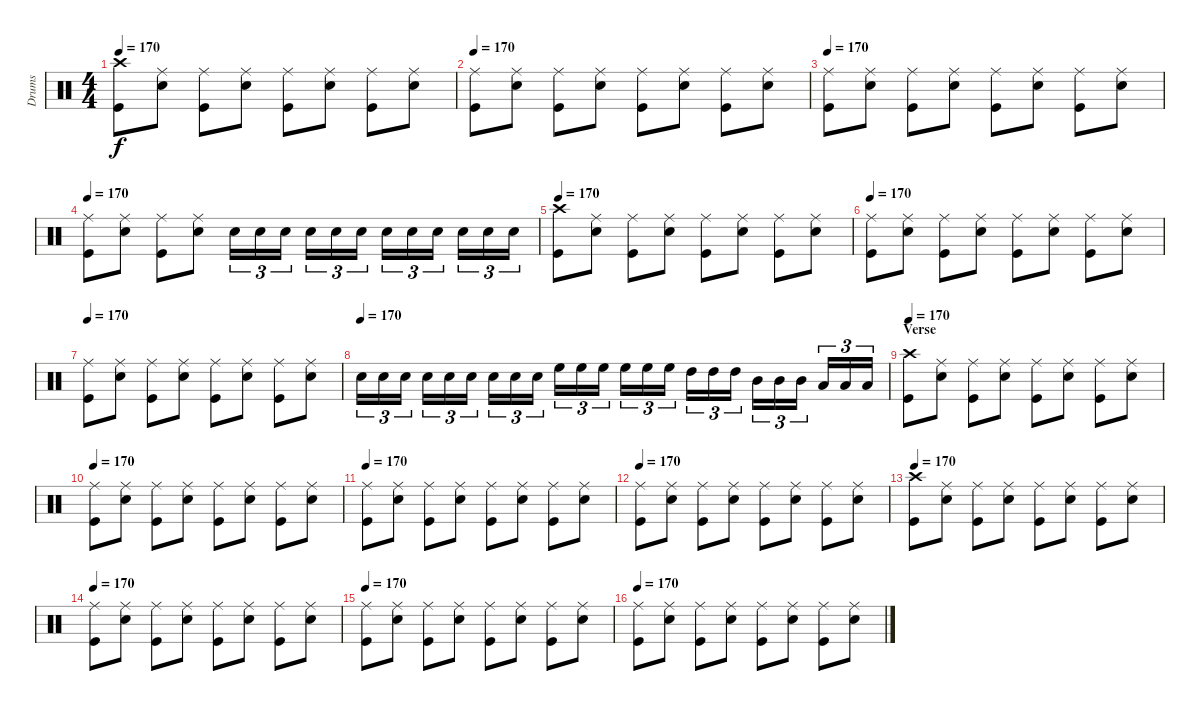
\track ("Drums" "Drums") {instrument percussion}
\staff {score}
\articulation defaults
\ts (4 4)
\tempo 170
\clef neutral
\ks c
("Crash high (hit)" "Kick (hit)").8{dy f} ("Ride (middle)" "Snare (hit) 2").8 ("Ride (middle)" "Kick (hit)").8 ("Ride (middle)" "Snare (hit) 2").8 ("Ride (middle)" "Kick (hit)").8 ("Ride (middle)" "Snare (hit) 2").8 ("Ride (middle)" "Kick (hit)").8 ("Ride (middle)" "Snare (hit) 2").8 |
\tempo 170
("Ride (middle)" "Kick (hit)").8 ("Ride (middle)" "Snare (hit) 2").8 ("Ride (middle)" "Kick (hit)").8 ("Ride (middle)" "Snare (hit) 2").8 ("Ride (middle)" "Kick (hit)").8 ("Ride (middle)" "Snare (hit) 2").8 ("Ride (middle)" "Kick (hit)").8 ("Ride (middle)" "Snare (hit) 2").8 |
\tempo 170
("Ride (middle)" "Kick (hit)").8 ("Ride (middle)" "Snare (hit) 2").8 ("Ride (middle)" "Kick (hit)").8 ("Ride (middle)" "Snare (hit) 2").8 ("Ride (middle)" "Kick (hit)").8 ("Ride (middle)" "Snare (hit) 2").8 ("Ride (middle)" "Kick (hit)").8 ("Ride (middle)" "Snare (hit) 2").8 |
\tempo 170
("Ride (middle)" "Kick (hit)").8 ("Ride (middle)" "Snare (hit) 2").8 ("Ride (middle)" "Kick (hit)").8 ("Ride (middle)" "Snare (hit) 2").8 "Snare (hit) 2".16{tu (3 2)} "Snare (hit) 2".16{tu (3 2)} "Snare (hit) 2".16{tu (3 2)} "Snare (hit) 2".16{tu (3 2)} "Snare (hit) 2".16{tu (3 2)} "Snare (hit) 2".16{tu (3 2)} "Snare (hit) 2".16{tu (3 2)} "Snare (hit) 2".16{tu (3 2)} "Snare (hit) 2".16{tu (3 2)} "Snare (hit) 2".16{tu (3 2)} "Snare (hit) 2".16{tu (3 2)} "Snare (hit) 2".16{tu (3 2)} |
\tempo 170
("Crash high (hit)" "Kick (hit)").8 ("Ride (middle)" "Snare (hit) 2").8 ("Ride (middle)" "Kick (hit)").8 ("Ride (middle)" "Snare (hit) 2").8 ("Ride (middle)" "Kick (hit)").8 ("Ride (middle)" "Snare (hit) 2").8 ("Ride (middle)" "Kick (hit)").8 ("Ride (middle)" "Snare (hit) 2").8 |
\tempo 170
("Ride (middle)" "Kick (hit)").8 ("Ride (middle)" "Snare (hit) 2").8 ("Ride (middle)" "Kick (hit)").8 ("Ride (middle)" "Snare (hit) 2").8 ("Ride (middle)" "Kick (hit)").8 ("Ride (middle)" "Snare (hit) 2").8 ("Ride (middle)" "Kick (hit)").8 ("Ride (middle)" "Snare (hit) 2").8 |
\tempo 170
("Ride (middle)" "Kick (hit)").8 ("Ride (middle)" "Snare (hit) 2").8 ("Ride (middle)" "Kick (hit)").8 ("Ride (middle)" "Snare (hit) 2").8 ("Ride (middle)" "Kick (hit)").8 ("Ride (middle)" "Snare (hit) 2").8 ("Ride (middle)" "Kick (hit)").8 ("Ride (middle)" "Snare (hit) 2").8 |
\tempo (170)
"Snare (hit) 2".16{tu (3 2)} "Snare (hit) 2".16{tu (3 2)} "Snare (hit) 2".16{tu (3 2)} "Snare (hit) 2".16{tu (3 2)} "Snare (hit) 2".16{tu (3 2)} "Snare (hit) 2".16{tu (3 2)} "Snare (hit) 2".16{tu (3 2)} "Snare (hit) 2".16{tu (3 2)} "Snare (hit) 2".16{tu (3 2)} "High Floor Tom (hit)".16{tu (3 2)} "High Floor Tom (hit)".16{tu (3 2)} "High Floor Tom (hit)".16{tu (3 2)} "High Floor Tom (hit)".16{tu (3 2)} "High Floor Tom (hit)".16{tu (3 2)} "High Floor Tom (hit)".16{tu (3 2)} "High Tom (hit)".16{tu (3 2)} "High Tom (hit)".16{tu (3 2)} "High Tom (hit)".16{tu (3 2)} "Mid Tom (hit)".16{tu (3 2)} "Mid Tom (hit)".16{tu (3 2)} "Mid Tom (hit)".16{tu (3 2)} "Low Tom (hit)".16{tu (3 2)} "Low Tom (hit)".16{tu (3 2)} "Low Tom (hit)".16{tu (3 2)} |
\section ("" "Verse")
\tempo 170
("Crash high (hit)" "Kick (hit)").8 ("Ride (middle)" "Snare (hit) 2").8 ("Ride (middle)" "Kick (hit)").8 ("Ride (middle)" "Snare (hit) 2").8 ("Ride (middle)" "Kick (hit)").8 ("Ride (middle)" "Snare (hit) 2").8 ("Ride (middle)" "Kick (hit)").8 ("Ride (middle)" "Snare (hit) 2").8 |
\tempo 170
("Ride (middle)" "Kick (hit)").8 ("Ride (middle)" "Snare (hit) 2").8 ("Ride (middle)" "Kick (hit)").8 ("Ride (middle)" "Snare (hit) 2").8 ("Ride (middle)" "Kick (hit)").8 ("Ride (middle)" "Snare (hit) 2").8 ("Ride (middle)" "Kick (hit)").8 ("Ride (middle)" "Snare (hit) 2").8 |
\tempo 170
("Ride (middle)" "Kick (hit)").8 ("Ride (middle)" "Snare (hit) 2").8 ("Ride (middle)" "Kick (hit)").8 ("Ride (middle)" "Snare (hit) 2").8 ("Ride (middle)" "Kick (hit)").8 ("Ride (middle)" "Snare (hit) 2").8 ("Ride (middle)" "Kick (hit)").8 ("Ride (middle)" "Snare (hit) 2").8 |
\tempo 170
("Ride (middle)" "Kick (hit)").8 ("Ride (middle)" "Snare (hit) 2").8 ("Ride (middle)" "Kick (hit)").8 ("Ride (middle)" "Snare (hit) 2").8 ("Ride (middle)" "Kick (hit)").8 ("Ride (middle)" "Snare (hit) 2").8 ("Ride (middle)" "Kick (hit)").8 ("Ride (middle)" "Snare (hit) 2").8 |
\tempo 170
("Crash high (hit)" "Kick (hit)").8 ("Ride (middle)" "Snare (hit) 2").8 ("Ride (middle)" "Kick (hit)").8 ("Ride (middle)" "Snare (hit) 2").8 ("Ride (middle)" "Kick (hit)").8 ("Ride (middle)" "Snare (hit) 2").8 ("Ride (middle)" "Kick (hit)").8 ("Ride (middle)" "Snare (hit) 2").8 |
\tempo 170
("Ride (middle)" "Kick (hit)").8 ("Ride (middle)" "Snare (hit) 2").8 ("Ride (middle)" "Kick (hit)").8 ("Ride (middle)" "Snare (hit) 2").8 ("Ride (middle)" "Kick (hit)").8 ("Ride (middle)" "Snare (hit) 2").8 ("Ride (middle)" "Kick (hit)").8 ("Ride (middle)" "Snare (hit) 2").8 |
\tempo 170
("Ride (middle)" "Kick (hit)").8 ("Ride (middle)" "Snare (hit) 2").8 ("Ride (middle)" "Kick (hit)").8 ("Ride (middle)" "Snare (hit) 2").8 ("Ride (middle)" "Kick (hit)").8 ("Ride (middle)" "Snare (hit) 2").8 ("Ride (middle)" "Kick (hit)").8 ("Ride (middle)" "Snare (hit) 2").8 |
\tempo 170
("Ride (middle)" "Kick (hit)").8 ("Ride (middle)" "Snare (hit) 2").8 ("Ride (middle)" "Kick (hit)").8 ("Ride (middle)" "Snare (hit) 2").8 ("Ride (middle)" "Kick (hit)").8 ("Ride (middle)" "Snare (hit) 2").8 ("Ride (middle)" "Kick (hit)").8 ("Ride (middle)" "Snare (hit) 2").8
